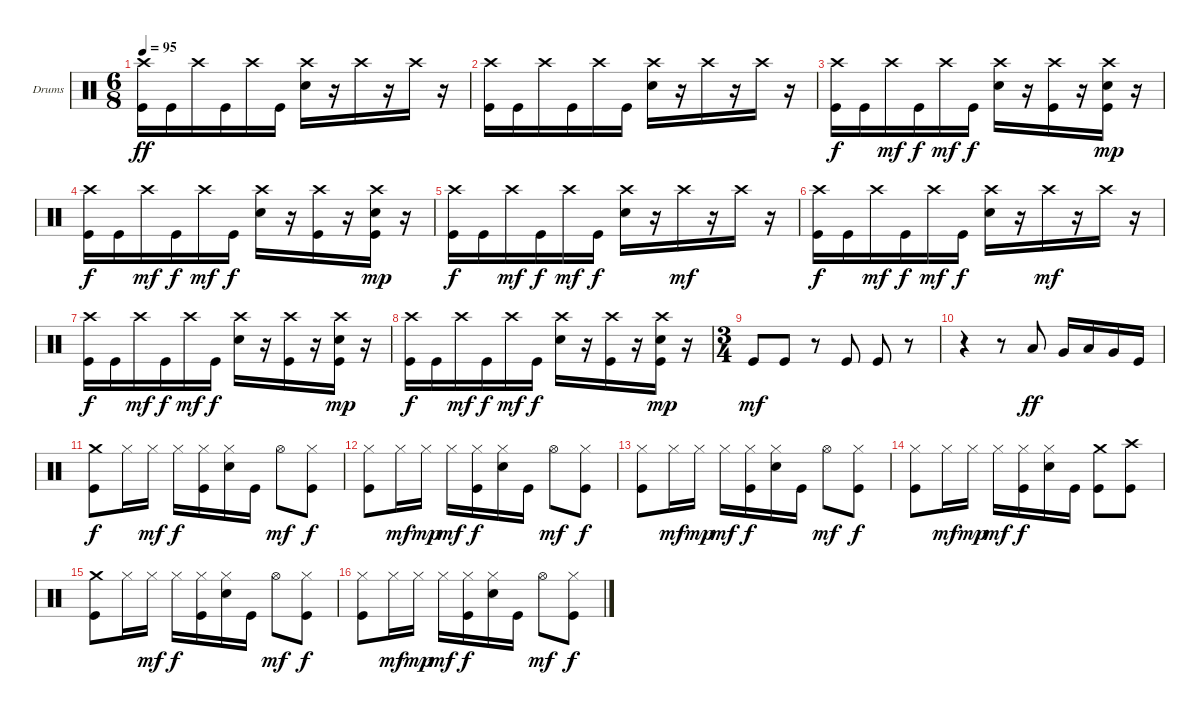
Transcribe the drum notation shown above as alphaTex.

\defaultSystemsLayout 4
\bracketExtendMode groupsimilarinstruments
\firstSystemTrackNameOrientation horizontal
\otherSystemsTrackNameOrientation horizontal
\track ("Drumkit" "Drums") {instrument percussion}
\staff {score}
\articulation defaults
\ts (6 8)
\tempo 95
\clef neutral
\scale
0.474178
\ks c
("Kick (hit)" "Crash high (hit)").16{dy ff} "Kick (hit)".16 "Crash high (hit)".16 "Kick (hit)".16 "Crash high (hit)".16 "Kick (hit)".16 ("Snare (hit) 2" "Crash high (hit)").16 r.16 "Crash high (hit)".16 r.16 "Crash high (hit)".16 r.16 |
\scale
0.262911 ("Kick (hit)" "Crash high (hit)").16 "Kick (hit)".16 "Crash high (hit)".16 "Kick (hit)".16 "Crash high (hit)".16 "Kick (hit)".16 ("Snare (hit) 2" "Crash high (hit)").16 r.16 "Crash high (hit)".16 r.16 "Crash high (hit)".16 r.16 |
\scale
0.333333 ("Kick (hit)" "Crash high (hit)").16{dy f} "Kick (hit)".16 "Crash high (hit)".16{dy mf} "Kick (hit)".16{dy f} "Crash high (hit)".16{dy mf} "Kick (hit)".16{dy f} ("Snare (hit) 2" "Crash high (hit)").16 r.16 ("Kick (hit)" "Crash high (hit)").16 r.16 ("Kick (hit)" "Snare (hit) 2" "Crash high (hit)").16{dy mp} r.16 |
\scale
0.333333 ("Kick (hit)" "Crash high (hit)").16{dy f} "Kick (hit)".16 "Crash high (hit)".16{dy mf} "Kick (hit)".16{dy f} "Crash high (hit)".16{dy mf} "Kick (hit)".16{dy f} ("Snare (hit) 2" "Crash high (hit)").16 r.16 ("Kick (hit)" "Crash high (hit)").16 r.16 ("Kick (hit)" "Snare (hit) 2" "Crash high (hit)").16{dy mp} r.16 |
\scale
0.333333 ("Kick (hit)" "Crash high (hit)").16{dy f} "Kick (hit)".16 "Crash high (hit)".16{dy mf} "Kick (hit)".16{dy f} "Crash high (hit)".16{dy mf} "Kick (hit)".16{dy f} ("Snare (hit) 2" "Crash high (hit)").16 r.16 "Crash high (hit)".16{dy mf} r.16 "Crash high (hit)".16 r.16 |
\scale
0.333333 ("Kick (hit)" "Crash high (hit)").16{dy f} "Kick (hit)".16 "Crash high (hit)".16{dy mf} "Kick (hit)".16{dy f} "Crash high (hit)".16{dy mf} "Kick (hit)".16{dy f} ("Snare (hit) 2" "Crash high (hit)").16 r.16 "Crash high (hit)".16{dy mf} r.16 "Crash high (hit)".16 r.16 |
\scale
0.333333 ("Kick (hit)" "Crash high (hit)").16{dy f} "Kick (hit)".16 "Crash high (hit)".16{dy mf} "Kick (hit)".16{dy f} "Crash high (hit)".16{dy mf} "Kick (hit)".16{dy f} ("Snare (hit) 2" "Crash high (hit)").16 r.16 ("Kick (hit)" "Crash high (hit)").16 r.16 ("Kick (hit)" "Snare (hit) 2" "Crash high (hit)").16{dy mp} r.16 |
\scale
0.333333 ("Kick (hit)" "Crash high (hit)").16{dy f} "Kick (hit)".16 "Crash high (hit)".16{dy mf} "Kick (hit)".16{dy f} "Crash high (hit)".16{dy mf} "Kick (hit)".16{dy f} ("Snare (hit) 2" "Crash high (hit)").16 r.16 ("Kick (hit)" "Crash high (hit)").16 r.16 ("Kick (hit)" "Snare (hit) 2" "Crash high (hit)").16{dy mp} r.16 |
\ts (3 4)
"Kick (hit)".8{dy mf} "Kick (hit)".8 r.8 "Kick (hit)".8 "Kick (hit)".8 r.8 |
r.4 r.8 "Low Tom (hit)".8{dy ff} "Very Low Tom (hit)".16 "Low Tom (hit)".16 "Very Low Tom (hit)".16 "Kick (hit)".16 |
\scale
0.474178 ("Kick (hit)" "Crash medium (hit)").8{dy f} "Hi-Hat (closed)".16 "Hi-Hat (closed)".16{dy mf} "Hi-Hat (closed)".16{dy f} ("Kick (hit)" "Hi-Hat (closed)").16 ("Snare (hit) 2" "Hi-Hat (closed)").16 "Kick (hit)".16 "Hi-Hat (open)".8{dy mf} ("Kick (hit)" "Hi-Hat (closed)").8{dy f} |
\scale
0.262911 ("Kick (hit)" "Hi-Hat (closed)").8 "Hi-Hat (closed)".16{dy mf} "Hi-Hat (closed)".16{dy mp} "Hi-Hat (closed)".16{dy mf} ("Kick (hit)" "Hi-Hat (closed)").16{dy f} ("Snare (hit) 2" "Hi-Hat (closed)").16 "Kick (hit)".16 "Hi-Hat (open)".8{dy mf} ("Kick (hit)" "Hi-Hat (closed)").8{dy f} |
\scale
0.262911 ("Kick (hit)" "Hi-Hat (closed)").8 "Hi-Hat (closed)".16{dy mf} "Hi-Hat (closed)".16{dy mp} "Hi-Hat (closed)".16{dy mf} ("Kick (hit)" "Hi-Hat (closed)").16{dy f} ("Snare (hit) 2" "Hi-Hat (closed)").16 "Kick (hit)".16 "Hi-Hat (open)".8{dy mf} ("Kick (hit)" "Hi-Hat (closed)").8{dy f} |
\scale
0.333333 ("Kick (hit)" "Hi-Hat (closed)").8 "Hi-Hat (closed)".16{dy mf} "Hi-Hat (closed)".16{dy mp} "Hi-Hat (closed)".16{dy mf} ("Kick (hit)" "Hi-Hat (closed)").16{dy f} ("Snare (hit) 2" "Hi-Hat (closed)").16 "Kick (hit)".16 ("Kick (hit)" "Crash medium (hit)").8 ("Kick (hit)" "Crash high (hit)").8 |
\scale
0.333333 ("Kick (hit)" "Crash medium (hit)").8 "Hi-Hat (closed)".16 "Hi-Hat (closed)".16{dy mf} "Hi-Hat (closed)".16{dy f} ("Kick (hit)" "Hi-Hat (closed)").16 ("Snare (hit) 2" "Hi-Hat (closed)").16 "Kick (hit)".16 "Hi-Hat (open)".8{dy mf} ("Kick (hit)" "Hi-Hat (closed)").8{dy f} |
\scale
0.333333 ("Kick (hit)" "Hi-Hat (closed)").8 "Hi-Hat (closed)".16{dy mf} "Hi-Hat (closed)".16{dy mp} "Hi-Hat (closed)".16{dy mf} ("Kick (hit)" "Hi-Hat (closed)").16{dy f} ("Snare (hit) 2" "Hi-Hat (closed)").16 "Kick (hit)".16 "Hi-Hat (open)".8{dy mf} ("Kick (hit)" "Hi-Hat (closed)").8{dy f}
